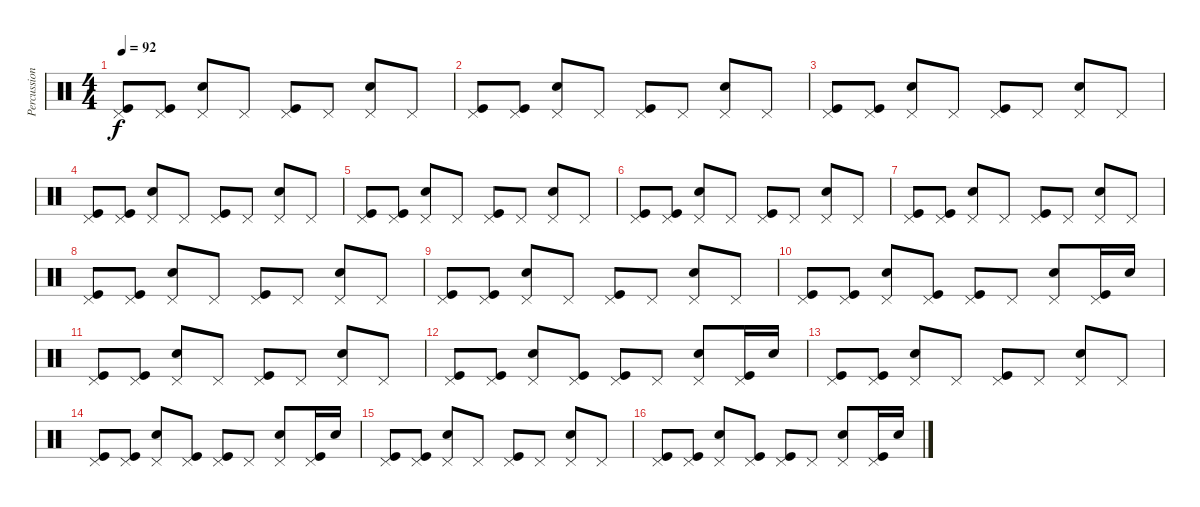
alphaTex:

\track ("Percussion" "Percussion") {instrument percussion}
\staff {score}
\articulation defaults
\ts (4 4)
\tempo 92
\clef neutral
\ks c
("Pedal Hi-Hat (hit)" "Kick (hit)").8{dy f} ("Pedal Hi-Hat (hit)" "Kick (hit)").8 ("Pedal Hi-Hat (hit)" "Snare (hit) 2").8 "Pedal Hi-Hat (hit)".8 ("Pedal Hi-Hat (hit)" "Kick (hit)").8 "Pedal Hi-Hat (hit)".8 ("Pedal Hi-Hat (hit)" "Snare (hit) 2").8 "Pedal Hi-Hat (hit)".8 |
("Pedal Hi-Hat (hit)" "Kick (hit)").8 ("Pedal Hi-Hat (hit)" "Kick (hit)").8 ("Pedal Hi-Hat (hit)" "Snare (hit) 2").8 "Pedal Hi-Hat (hit)".8 ("Pedal Hi-Hat (hit)" "Kick (hit)").8 "Pedal Hi-Hat (hit)".8 ("Pedal Hi-Hat (hit)" "Snare (hit) 2").8 "Pedal Hi-Hat (hit)".8 |
("Pedal Hi-Hat (hit)" "Kick (hit)").8 ("Pedal Hi-Hat (hit)" "Kick (hit)").8 ("Pedal Hi-Hat (hit)" "Snare (hit) 2").8 "Pedal Hi-Hat (hit)".8 ("Pedal Hi-Hat (hit)" "Kick (hit)").8 "Pedal Hi-Hat (hit)".8 ("Pedal Hi-Hat (hit)" "Snare (hit) 2").8 "Pedal Hi-Hat (hit)".8 |
("Pedal Hi-Hat (hit)" "Kick (hit)").8 ("Pedal Hi-Hat (hit)" "Kick (hit)").8 ("Pedal Hi-Hat (hit)" "Snare (hit) 2").8 "Pedal Hi-Hat (hit)".8 ("Pedal Hi-Hat (hit)" "Kick (hit)").8 "Pedal Hi-Hat (hit)".8 ("Pedal Hi-Hat (hit)" "Snare (hit) 2").8 "Pedal Hi-Hat (hit)".8 |
("Pedal Hi-Hat (hit)" "Kick (hit)").8 ("Pedal Hi-Hat (hit)" "Kick (hit)").8 ("Pedal Hi-Hat (hit)" "Snare (hit) 2").8 "Pedal Hi-Hat (hit)".8 ("Pedal Hi-Hat (hit)" "Kick (hit)").8 "Pedal Hi-Hat (hit)".8 ("Pedal Hi-Hat (hit)" "Snare (hit) 2").8 "Pedal Hi-Hat (hit)".8 |
("Pedal Hi-Hat (hit)" "Kick (hit)").8 ("Pedal Hi-Hat (hit)" "Kick (hit)").8 ("Pedal Hi-Hat (hit)" "Snare (hit) 2").8 "Pedal Hi-Hat (hit)".8 ("Pedal Hi-Hat (hit)" "Kick (hit)").8 "Pedal Hi-Hat (hit)".8 ("Pedal Hi-Hat (hit)" "Snare (hit) 2").8 "Pedal Hi-Hat (hit)".8 |
("Pedal Hi-Hat (hit)" "Kick (hit)").8 ("Pedal Hi-Hat (hit)" "Kick (hit)").8 ("Pedal Hi-Hat (hit)" "Snare (hit) 2").8 "Pedal Hi-Hat (hit)".8 ("Pedal Hi-Hat (hit)" "Kick (hit)").8 "Pedal Hi-Hat (hit)".8 ("Pedal Hi-Hat (hit)" "Snare (hit) 2").8 "Pedal Hi-Hat (hit)".8 |
("Pedal Hi-Hat (hit)" "Kick (hit)").8 ("Pedal Hi-Hat (hit)" "Kick (hit)").8 ("Pedal Hi-Hat (hit)" "Snare (hit) 2").8 "Pedal Hi-Hat (hit)".8 ("Pedal Hi-Hat (hit)" "Kick (hit)").8 "Pedal Hi-Hat (hit)".8 ("Pedal Hi-Hat (hit)" "Snare (hit) 2").8 "Pedal Hi-Hat (hit)".8 |
("Pedal Hi-Hat (hit)" "Kick (hit)").8 ("Pedal Hi-Hat (hit)" "Kick (hit)").8 ("Pedal Hi-Hat (hit)" "Snare (hit) 2").8 "Pedal Hi-Hat (hit)".8 ("Pedal Hi-Hat (hit)" "Kick (hit)").8 "Pedal Hi-Hat (hit)".8 ("Pedal Hi-Hat (hit)" "Snare (hit) 2").8 "Pedal Hi-Hat (hit)".8 |
("Pedal Hi-Hat (hit)" "Kick (hit)").8 ("Pedal Hi-Hat (hit)" "Kick (hit)").8 ("Pedal Hi-Hat (hit)" "Snare (hit) 2").8 ("Pedal Hi-Hat (hit)" "Kick (hit)").8 ("Pedal Hi-Hat (hit)" "Kick (hit)").8 "Pedal Hi-Hat (hit)".8 ("Pedal Hi-Hat (hit)" "Snare (hit) 2").8 ("Pedal Hi-Hat (hit)" "Kick (hit)").16 "Snare (hit) 2".16 |
("Pedal Hi-Hat (hit)" "Kick (hit)").8 ("Pedal Hi-Hat (hit)" "Kick (hit)").8 ("Pedal Hi-Hat (hit)" "Snare (hit) 2").8 "Pedal Hi-Hat (hit)".8 ("Pedal Hi-Hat (hit)" "Kick (hit)").8 "Pedal Hi-Hat (hit)".8 ("Pedal Hi-Hat (hit)" "Snare (hit) 2").8 "Pedal Hi-Hat (hit)".8 |
("Pedal Hi-Hat (hit)" "Kick (hit)").8 ("Pedal Hi-Hat (hit)" "Kick (hit)").8 ("Pedal Hi-Hat (hit)" "Snare (hit) 2").8 ("Pedal Hi-Hat (hit)" "Kick (hit)").8 ("Pedal Hi-Hat (hit)" "Kick (hit)").8 "Pedal Hi-Hat (hit)".8 ("Pedal Hi-Hat (hit)" "Snare (hit) 2").8 ("Pedal Hi-Hat (hit)" "Kick (hit)").16 "Snare (hit) 2".16 |
("Pedal Hi-Hat (hit)" "Kick (hit)").8 ("Pedal Hi-Hat (hit)" "Kick (hit)").8 ("Pedal Hi-Hat (hit)" "Snare (hit) 2").8 "Pedal Hi-Hat (hit)".8 ("Pedal Hi-Hat (hit)" "Kick (hit)").8 "Pedal Hi-Hat (hit)".8 ("Pedal Hi-Hat (hit)" "Snare (hit) 2").8 "Pedal Hi-Hat (hit)".8 |
("Pedal Hi-Hat (hit)" "Kick (hit)").8 ("Pedal Hi-Hat (hit)" "Kick (hit)").8 ("Pedal Hi-Hat (hit)" "Snare (hit) 2").8 ("Pedal Hi-Hat (hit)" "Kick (hit)").8 ("Pedal Hi-Hat (hit)" "Kick (hit)").8 "Pedal Hi-Hat (hit)".8 ("Pedal Hi-Hat (hit)" "Snare (hit) 2").8 ("Pedal Hi-Hat (hit)" "Kick (hit)").16 "Snare (hit) 2".16 |
("Pedal Hi-Hat (hit)" "Kick (hit)").8 ("Pedal Hi-Hat (hit)" "Kick (hit)").8 ("Pedal Hi-Hat (hit)" "Snare (hit) 2").8 "Pedal Hi-Hat (hit)".8 ("Pedal Hi-Hat (hit)" "Kick (hit)").8 "Pedal Hi-Hat (hit)".8 ("Pedal Hi-Hat (hit)" "Snare (hit) 2").8 "Pedal Hi-Hat (hit)".8 |
("Pedal Hi-Hat (hit)" "Kick (hit)").8 ("Pedal Hi-Hat (hit)" "Kick (hit)").8 ("Pedal Hi-Hat (hit)" "Snare (hit) 2").8 ("Pedal Hi-Hat (hit)" "Kick (hit)").8 ("Pedal Hi-Hat (hit)" "Kick (hit)").8 "Pedal Hi-Hat (hit)".8 ("Pedal Hi-Hat (hit)" "Snare (hit) 2").8 ("Pedal Hi-Hat (hit)" "Kick (hit)").16 "Snare (hit) 2".16
